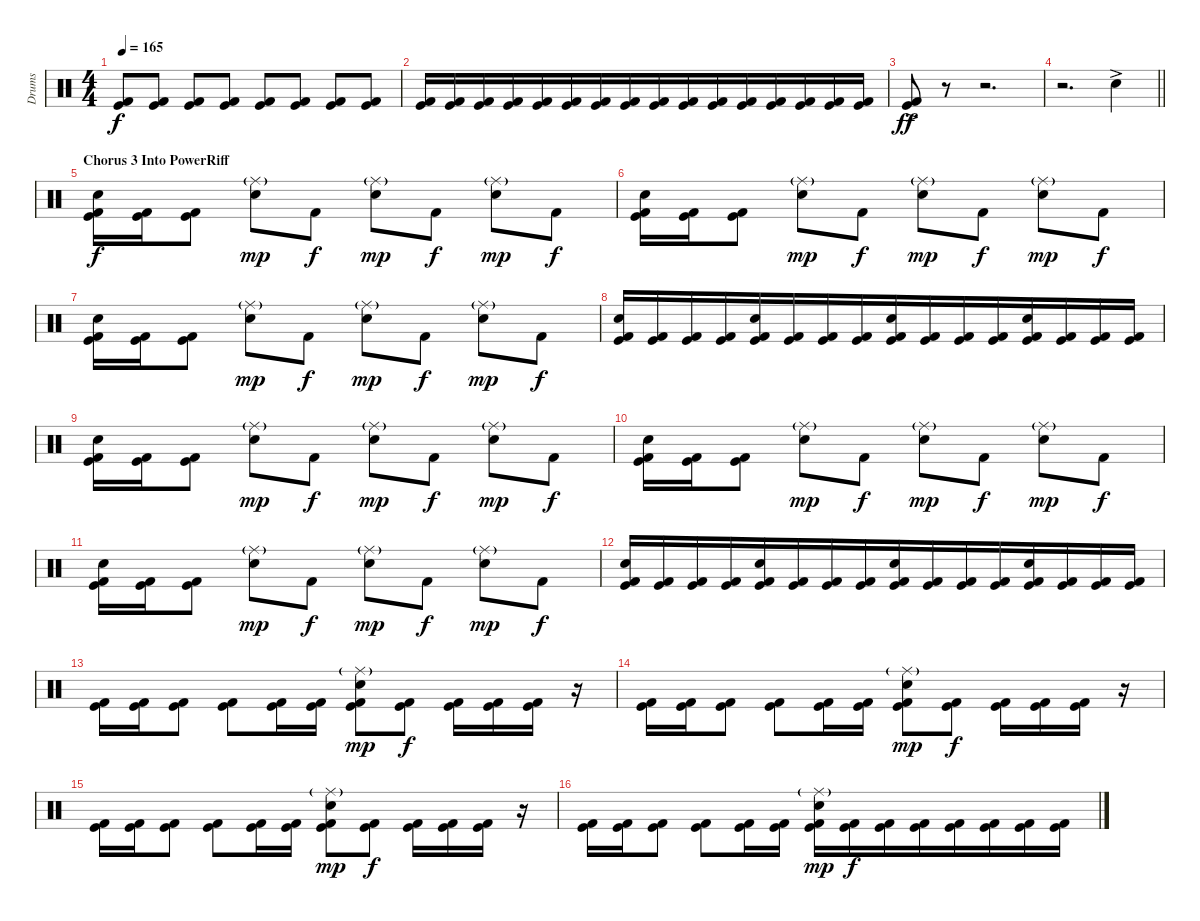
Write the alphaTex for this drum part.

\track ("Drums" "Drums") {instrument percussion}
\staff {score}
\articulation defaults
\ts (4 4)
\tempo 165
\clef neutral
\ks c
("Kick (hit)" "Kick (hit) 2").8{dy f} ("Kick (hit)" "Kick (hit) 2").8 ("Kick (hit)" "Kick (hit) 2").8 ("Kick (hit)" "Kick (hit) 2").8 ("Kick (hit)" "Kick (hit) 2").8 ("Kick (hit)" "Kick (hit) 2").8 ("Kick (hit)" "Kick (hit) 2").8 ("Kick (hit)" "Kick (hit) 2").8 |
("Kick (hit)" "Kick (hit) 2").16 ("Kick (hit)" "Kick (hit) 2").16 ("Kick (hit)" "Kick (hit) 2").16 ("Kick (hit)" "Kick (hit) 2").16{beam merge} ("Kick (hit)" "Kick (hit) 2").16 ("Kick (hit)" "Kick (hit) 2").16 ("Kick (hit)" "Kick (hit) 2").16 ("Kick (hit)" "Kick (hit) 2").16{beam merge} ("Kick (hit)" "Kick (hit) 2").16 ("Kick (hit)" "Kick (hit) 2").16 ("Kick (hit)" "Kick (hit) 2").16 ("Kick (hit)" "Kick (hit) 2").16{beam merge} ("Kick (hit)" "Kick (hit) 2").16 ("Kick (hit)" "Kick (hit) 2").16 ("Kick (hit)" "Kick (hit) 2").16 ("Kick (hit)" "Kick (hit) 2").16 |
("Kick (hit)"{ac} "Kick (hit) 2").8{dy ff} r.8 r.2{d} |
\barLineRight lightlight
r.2{d} "Snare (hit) 2"{ac}.4 |
\section ("" "Chorus 3 Into PowerRiff")
("Snare (hit) 2" "Kick (hit)" "Kick (hit) 2").16{dy f beam Down} ("Kick (hit)" "Kick (hit) 2").16{beam Down} ("Kick (hit)" "Kick (hit) 2").8{beam Down} ("Ride (middle)"{g} "Snare (hit) 2").8{dy mp} "Kick (hit) 2".8{dy f} ("Ride (middle)"{g} "Snare (hit) 2").8{dy mp} "Kick (hit) 2".8{dy f} ("Ride (middle)"{g} "Snare (hit) 2").8{dy mp} "Kick (hit) 2".8{dy f} |
("Snare (hit) 2" "Kick (hit)" "Kick (hit) 2").16{beam Down} ("Kick (hit)" "Kick (hit) 2").16{beam Down} ("Kick (hit)" "Kick (hit) 2").8{beam Down} ("Ride (middle)"{g} "Snare (hit) 2").8{dy mp} "Kick (hit) 2".8{dy f} ("Ride (middle)"{g} "Snare (hit) 2").8{dy mp} "Kick (hit) 2".8{dy f} ("Ride (middle)"{g} "Snare (hit) 2").8{dy mp} "Kick (hit) 2".8{dy f} |
("Snare (hit) 2" "Kick (hit)" "Kick (hit) 2").16{beam Down} ("Kick (hit)" "Kick (hit) 2").16{beam Down} ("Kick (hit)" "Kick (hit) 2").8{beam Down} ("Ride (middle)"{g} "Snare (hit) 2").8{dy mp} "Kick (hit) 2".8{dy f} ("Ride (middle)"{g} "Snare (hit) 2").8{dy mp} "Kick (hit) 2".8{dy f} ("Ride (middle)"{g} "Snare (hit) 2").8{dy mp} "Kick (hit) 2".8{dy f} |
("Snare (hit) 2" "Kick (hit)" "Kick (hit) 2").16 ("Kick (hit)" "Kick (hit) 2").16 ("Kick (hit)" "Kick (hit) 2").16 ("Kick (hit)" "Kick (hit) 2").16{beam merge} ("Snare (hit) 2" "Kick (hit)" "Kick (hit) 2").16 ("Kick (hit)" "Kick (hit) 2").16 ("Kick (hit)" "Kick (hit) 2").16 ("Kick (hit)" "Kick (hit) 2").16{beam merge} ("Snare (hit) 2" "Kick (hit)" "Kick (hit) 2").16 ("Kick (hit)" "Kick (hit) 2").16 ("Kick (hit)" "Kick (hit) 2").16 ("Kick (hit)" "Kick (hit) 2").16{beam merge} ("Snare (hit) 2" "Kick (hit)" "Kick (hit) 2").16 ("Kick (hit)" "Kick (hit) 2").16 ("Kick (hit)" "Kick (hit) 2").16 ("Kick (hit)" "Kick (hit) 2").16 |
("Snare (hit) 2" "Kick (hit)" "Kick (hit) 2").16{beam Down} ("Kick (hit)" "Kick (hit) 2").16{beam Down} ("Kick (hit)" "Kick (hit) 2").8{beam Down} ("Ride (middle)"{g} "Snare (hit) 2").8{dy mp} "Kick (hit) 2".8{dy f} ("Ride (middle)"{g} "Snare (hit) 2").8{dy mp} "Kick (hit) 2".8{dy f} ("Ride (middle)"{g} "Snare (hit) 2").8{dy mp} "Kick (hit) 2".8{dy f} |
("Snare (hit) 2" "Kick (hit)" "Kick (hit) 2").16{beam Down} ("Kick (hit)" "Kick (hit) 2").16{beam Down} ("Kick (hit)" "Kick (hit) 2").8{beam Down} ("Ride (middle)"{g} "Snare (hit) 2").8{dy mp} "Kick (hit) 2".8{dy f} ("Ride (middle)"{g} "Snare (hit) 2").8{dy mp} "Kick (hit) 2".8{dy f} ("Ride (middle)"{g} "Snare (hit) 2").8{dy mp} "Kick (hit) 2".8{dy f} |
("Snare (hit) 2" "Kick (hit)" "Kick (hit) 2").16{beam Down} ("Kick (hit)" "Kick (hit) 2").16{beam Down} ("Kick (hit)" "Kick (hit) 2").8{beam Down} ("Ride (middle)"{g} "Snare (hit) 2").8{dy mp} "Kick (hit) 2".8{dy f} ("Ride (middle)"{g} "Snare (hit) 2").8{dy mp} "Kick (hit) 2".8{dy f} ("Ride (middle)"{g} "Snare (hit) 2").8{dy mp} "Kick (hit) 2".8{dy f} |
("Snare (hit) 2" "Kick (hit)" "Kick (hit) 2").16 ("Kick (hit)" "Kick (hit) 2").16 ("Kick (hit)" "Kick (hit) 2").16 ("Kick (hit)" "Kick (hit) 2").16{beam merge} ("Snare (hit) 2" "Kick (hit)" "Kick (hit) 2").16 ("Kick (hit)" "Kick (hit) 2").16 ("Kick (hit)" "Kick (hit) 2").16 ("Kick (hit)" "Kick (hit) 2").16{beam merge} ("Snare (hit) 2" "Kick (hit)" "Kick (hit) 2").16 ("Kick (hit)" "Kick (hit) 2").16 ("Kick (hit)" "Kick (hit) 2").16 ("Kick (hit)" "Kick (hit) 2").16{beam merge} ("Snare (hit) 2" "Kick (hit)" "Kick (hit) 2").16 ("Kick (hit)" "Kick (hit) 2").16 ("Kick (hit)" "Kick (hit) 2").16 ("Kick (hit)" "Kick (hit) 2").16 |
("Kick (hit)" "Kick (hit) 2").16{beam Down} ("Kick (hit)" "Kick (hit) 2").16{beam Down} ("Kick (hit)" "Kick (hit) 2").8{beam Down} ("Kick (hit)" "Kick (hit) 2").8{beam Down} ("Kick (hit)" "Kick (hit) 2").16{beam Down} ("Kick (hit)" "Kick (hit) 2").16{beam Down} ("Ride (middle)"{g} "Snare (hit) 2" "Kick (hit)" "Kick (hit) 2").8{dy mp beam merge} ("Kick (hit)" "Kick (hit) 2").8{dy f} ("Kick (hit)" "Kick (hit) 2").16{beam Down beam merge} ("Kick (hit)" "Kick (hit) 2").16{beam Down} ("Kick (hit)" "Kick (hit) 2").16{beam Down} r.16 |
("Kick (hit)" "Kick (hit) 2").16{beam Down} ("Kick (hit)" "Kick (hit) 2").16{beam Down} ("Kick (hit)" "Kick (hit) 2").8{beam Down} ("Kick (hit)" "Kick (hit) 2").8{beam Down} ("Kick (hit)" "Kick (hit) 2").16{beam Down} ("Kick (hit)" "Kick (hit) 2").16{beam Down} ("Ride (middle)"{g} "Snare (hit) 2" "Kick (hit)" "Kick (hit) 2").8{dy mp beam merge} ("Kick (hit)" "Kick (hit) 2").8{dy f} ("Kick (hit)" "Kick (hit) 2").16{beam Down beam merge} ("Kick (hit)" "Kick (hit) 2").16{beam Down} ("Kick (hit)" "Kick (hit) 2").16{beam Down} r.16 |
("Kick (hit)" "Kick (hit) 2").16{beam Down} ("Kick (hit)" "Kick (hit) 2").16{beam Down} ("Kick (hit)" "Kick (hit) 2").8{beam Down} ("Kick (hit)" "Kick (hit) 2").8{beam Down} ("Kick (hit)" "Kick (hit) 2").16{beam Down} ("Kick (hit)" "Kick (hit) 2").16{beam Down} ("Ride (middle)"{g} "Snare (hit) 2" "Kick (hit)" "Kick (hit) 2").8{dy mp beam merge} ("Kick (hit)" "Kick (hit) 2").8{dy f} ("Kick (hit)" "Kick (hit) 2").16{beam Down beam merge} ("Kick (hit)" "Kick (hit) 2").16{beam Down} ("Kick (hit)" "Kick (hit) 2").16{beam Down} r.16 |
("Kick (hit)" "Kick (hit) 2").16{beam Down} ("Kick (hit)" "Kick (hit) 2").16{beam Down} ("Kick (hit)" "Kick (hit) 2").8{beam Down} ("Kick (hit)" "Kick (hit) 2").8{beam Down} ("Kick (hit)" "Kick (hit) 2").16{beam Down} ("Kick (hit)" "Kick (hit) 2").16{beam Down} ("Ride (middle)"{g} "Snare (hit) 2" "Kick (hit)" "Kick (hit) 2").16{dy mp beam merge} ("Kick (hit)" "Kick (hit) 2").16{dy f} ("Kick (hit)" "Kick (hit) 2").16{beam merge} ("Kick (hit)" "Kick (hit) 2").16{beam merge} ("Kick (hit)" "Kick (hit) 2").16 ("Kick (hit)" "Kick (hit) 2").16 ("Kick (hit)" "Kick (hit) 2").16 ("Kick (hit)" "Kick (hit) 2").16
